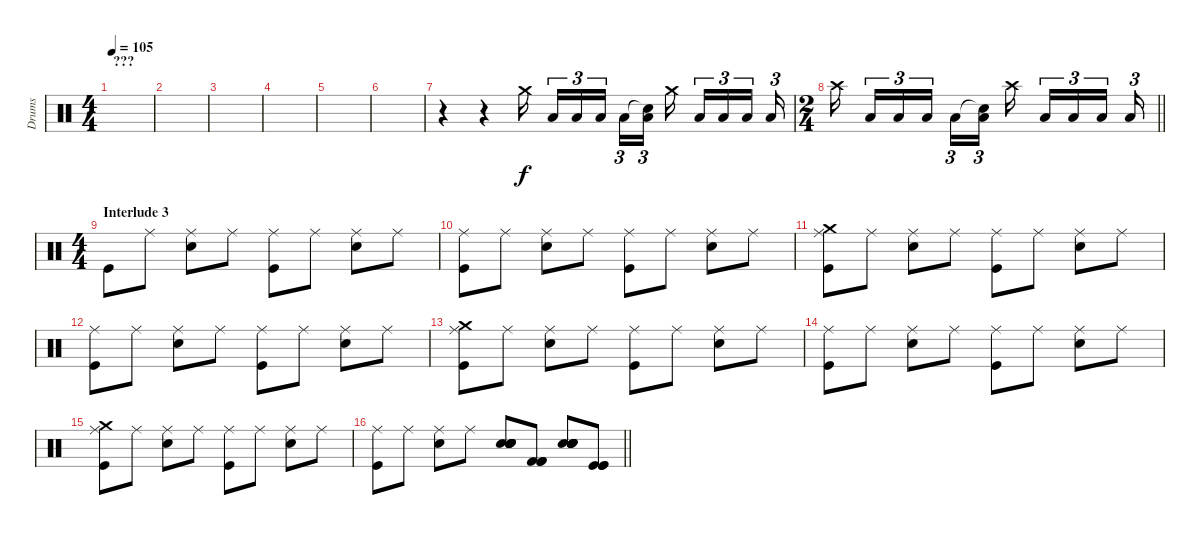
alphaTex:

\track ("Drums" "Drums") {instrument percussion}
\staff {score}
\articulation defaults
\ts (4 4)
\section ("" "???")
\tempo 105
\clef neutral
\ks c
|
|
|
|
|
|
r.4 r.4 "Crash medium (hit)".16{beam splitsecondary} "Low Tom (hit)".16{tu (3 2)} "Low Tom (hit)".16{tu (3 2)} "Low Tom (hit)".16{tu (3 2) beam splitsecondary} "Low Tom (hit)".16{tu (3 2)} ("Snare (hit)"{t} "Low Tom (hit)").16{tu (3 2)} "Crash medium (hit)".16{beam splitsecondary} "Low Tom (hit)".16{tu (3 2)} "Low Tom (hit)".16{tu (3 2)} "Low Tom (hit)".16{tu (3 2) beam splitsecondary} "Low Tom (hit)".16{tu (3 2)} |
\ts (2 4)
\barLineRight lightlight "Crash high (hit)".16{beam splitsecondary} "Low Tom (hit)".16{tu (3 2)} "Low Tom (hit)".16{tu (3 2)} "Low Tom (hit)".16{tu (3 2) beam splitsecondary} "Low Tom (hit)".16{tu (3 2)}
("Snare (hit)"{t} "Low Tom (hit)").16{tu (3 2)} "Crash high (hit)".16{beam splitsecondary} "Low Tom (hit)".16{tu (3 2)} "Low Tom (hit)".16{tu (3 2)} "Low Tom (hit)".16{tu (3 2) beam splitsecondary} "Low Tom (hit)".16{tu (3 2)} |
\ts (4 4)
\section ("" "Interlude 3")
"Kick (hit)".8 "Ride (middle)".8 ("Electric Snare (hit)" "Ride (middle)").8 "Ride (middle)".8 ("Kick (hit)" "Ride (middle)").8 "Ride (middle)".8 ("Electric Snare (hit)" "Ride (middle)").8 "Ride (middle)".8 |
("Kick (hit)" "Ride (middle)").8 "Ride (middle)".8 ("Electric Snare (hit)" "Ride (middle)").8 "Ride (middle)".8 ("Kick (hit)" "Ride (middle)").8 "Ride (middle)".8 ("Electric Snare (hit)" "Ride (middle)").8 "Ride (middle)".8 |
("Crash medium (hit)" "Kick (hit)" "Ride (middle)").8 "Ride (middle)".8 ("Electric Snare (hit)" "Ride (middle)").8 "Ride (middle)".8 ("Kick (hit)" "Ride (middle)").8 "Ride (middle)".8 ("Electric Snare (hit)" "Ride (middle)").8 "Ride (middle)".8 |
("Kick (hit)" "Ride (middle)").8 "Ride (middle)".8 ("Electric Snare (hit)" "Ride (middle)").8 "Ride (middle)".8 ("Kick (hit)" "Ride (middle)").8 "Ride (middle)".8 ("Electric Snare (hit)" "Ride (middle)").8 "Ride (middle)".8 |
("Crash medium (hit)" "Kick (hit)" "Ride (middle)").8 "Ride (middle)".8 ("Electric Snare (hit)" "Ride (middle)").8 "Ride (middle)".8 ("Kick (hit)" "Ride (middle)").8 "Ride (middle)".8 ("Electric Snare (hit)" "Ride (middle)").8 "Ride (middle)".8 |
("Kick (hit)" "Ride (middle)").8 "Ride (middle)".8 ("Electric Snare (hit)" "Ride (middle)").8 "Ride (middle)".8 ("Kick (hit)" "Ride (middle)").8 "Ride (middle)".8 ("Electric Snare (hit)" "Ride (middle)").8 "Ride (middle)".8 |
("Crash medium (hit)" "Kick (hit)" "Ride (middle)").8 "Ride (middle)".8 ("Electric Snare (hit)" "Ride (middle)").8 "Ride (middle)".8 ("Kick (hit)" "Ride (middle)").8 "Ride (middle)".8 ("Electric Snare (hit)" "Ride (middle)").8 "Ride (middle)".8 |
\barLineRight lightlight
("Kick (hit)" "Ride (middle)").8 "Ride (middle)".8 ("Electric Snare (hit)" "Ride (middle)").8 "Ride (middle)".8 ("Electric Snare (hit)" "Electric Snare (hit)" "Electric Snare (hit)" "Electric Snare (hit)" "Electric Snare (hit)" "Electric Snare (hit)").8 ("Kick (hit) 2" "Kick (hit) 2" "Kick (hit) 2").8 ("Electric Snare (hit)" "Electric Snare (hit)" "Electric Snare (hit)" "Electric Snare (hit)" "Electric Snare (hit)" "Electric Snare (hit)").8 ("Kick (hit)" "Kick (hit)" "Kick (hit)").8
